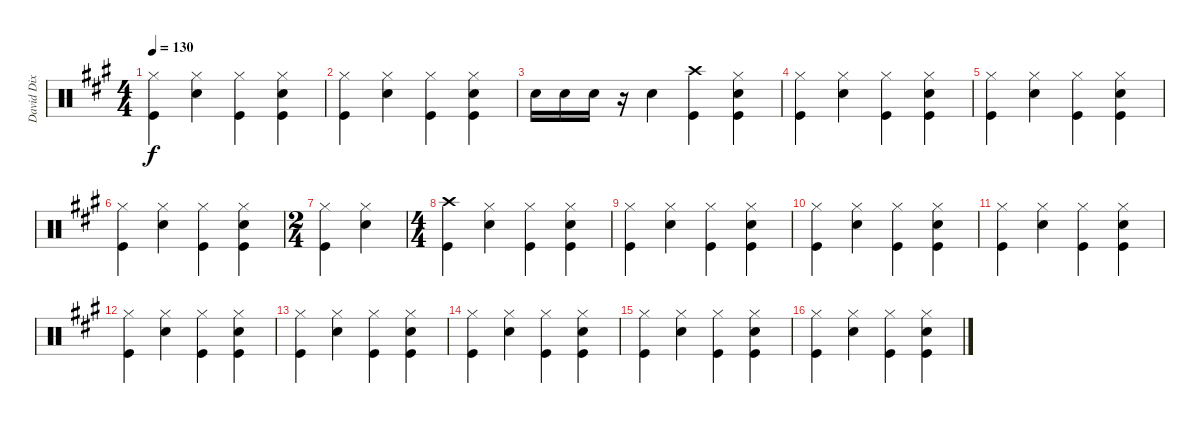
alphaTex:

\track ("David Dix Drums" "David Dix ") {instrument percussion}
\staff {score}
\articulation defaults
\ts (4 4)
\tempo 130
\clef neutral
\ks f#minor
("Hi-Hat (closed)" "Kick (hit)").4{dy f} ("Hi-Hat (closed)" "Snare (hit) 2").4 ("Hi-Hat (closed)" "Kick (hit)").4 ("Hi-Hat (closed)" "Snare (hit) 2" "Kick (hit)").4 |
("Hi-Hat (closed)" "Kick (hit)").4 ("Hi-Hat (closed)" "Snare (hit) 2").4 ("Hi-Hat (closed)" "Kick (hit)").4 ("Hi-Hat (closed)" "Snare (hit) 2" "Kick (hit)").4 |
"Snare (hit) 2".16{volume 14} "Snare (hit) 2".16 "Snare (hit) 2".16 r.16 "Snare (hit) 2".4 ("Crash high (hit)" "Kick (hit)").4 ("Hi-Hat (closed)" "Snare (hit) 2" "Kick (hit)").4 |
("Hi-Hat (closed)" "Kick (hit)").4 ("Hi-Hat (closed)" "Snare (hit) 2").4 ("Hi-Hat (closed)" "Kick (hit)").4 ("Hi-Hat (closed)" "Snare (hit) 2" "Kick (hit)").4 |
("Hi-Hat (closed)" "Kick (hit)").4 ("Hi-Hat (closed)" "Snare (hit) 2").4 ("Hi-Hat (closed)" "Kick (hit)").4 ("Hi-Hat (closed)" "Snare (hit) 2" "Kick (hit)").4 |
("Hi-Hat (closed)" "Kick (hit)").4 ("Hi-Hat (closed)" "Snare (hit) 2").4 ("Hi-Hat (closed)" "Kick (hit)").4 ("Hi-Hat (closed)" "Snare (hit) 2" "Kick (hit)").4 |
\ts (2 4)
("Hi-Hat (closed)" "Kick (hit)").4 ("Hi-Hat (closed)" "Snare (hit) 2").4 |
\ts (4 4)
("Crash high (hit)" "Kick (hit)").4 ("Hi-Hat (closed)" "Snare (hit) 2").4 ("Hi-Hat (closed)" "Kick (hit)").4 ("Hi-Hat (closed)" "Snare (hit) 2" "Kick (hit)").4 |
("Hi-Hat (closed)" "Kick (hit)").4 ("Hi-Hat (closed)" "Snare (hit) 2").4 ("Hi-Hat (closed)" "Kick (hit)").4 ("Hi-Hat (closed)" "Snare (hit) 2" "Kick (hit)").4 |
("Hi-Hat (closed)" "Kick (hit)").4 ("Hi-Hat (closed)" "Snare (hit) 2").4 ("Hi-Hat (closed)" "Kick (hit)").4 ("Hi-Hat (closed)" "Snare (hit) 2" "Kick (hit)").4 |
("Hi-Hat (closed)" "Kick (hit)").4 ("Hi-Hat (closed)" "Snare (hit) 2").4 ("Hi-Hat (closed)" "Kick (hit)").4 ("Hi-Hat (closed)" "Snare (hit) 2" "Kick (hit)").4 |
("Hi-Hat (closed)" "Kick (hit)").4 ("Hi-Hat (closed)" "Snare (hit) 2").4 ("Hi-Hat (closed)" "Kick (hit)").4 ("Hi-Hat (closed)" "Snare (hit) 2" "Kick (hit)").4 |
("Hi-Hat (closed)" "Kick (hit)").4 ("Hi-Hat (closed)" "Snare (hit) 2").4 ("Hi-Hat (closed)" "Kick (hit)").4 ("Hi-Hat (closed)" "Snare (hit) 2" "Kick (hit)").4 |
("Hi-Hat (closed)" "Kick (hit)").4 ("Hi-Hat (closed)" "Snare (hit) 2").4 ("Hi-Hat (closed)" "Kick (hit)").4 ("Hi-Hat (closed)" "Snare (hit) 2" "Kick (hit)").4 |
("Hi-Hat (closed)" "Kick (hit)").4 ("Hi-Hat (closed)" "Snare (hit) 2").4 ("Hi-Hat (closed)" "Kick (hit)").4 ("Hi-Hat (closed)" "Snare (hit) 2" "Kick (hit)").4 |
("Hi-Hat (closed)" "Kick (hit)").4 ("Hi-Hat (closed)" "Snare (hit) 2").4 ("Hi-Hat (closed)" "Kick (hit)").4 ("Hi-Hat (closed)" "Snare (hit) 2" "Kick (hit)").4
